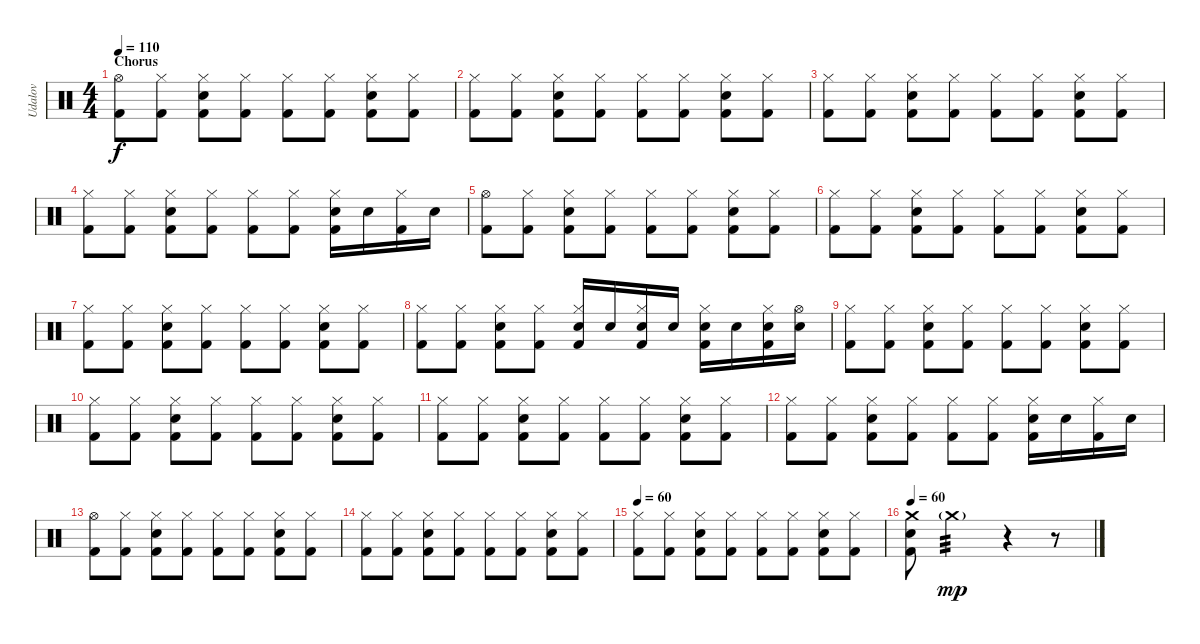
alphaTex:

\track ("Udalov" "Udalov") {instrument percussion}
\staff {score}
\articulation defaults
\ts (4 4)
\section ("" "Chorus")
\tempo 110
\clef neutral
\ks c
("Hi-Hat (open)" "Kick (hit) 2").8{dy f} ("Hi-Hat (closed)" "Kick (hit) 2").8 ("Hi-Hat (closed)" "Snare (hit) 2" "Kick (hit) 2").8 ("Hi-Hat (closed)" "Kick (hit) 2").8 ("Hi-Hat (closed)" "Kick (hit) 2").8 ("Hi-Hat (closed)" "Kick (hit) 2").8 ("Hi-Hat (closed)" "Snare (hit) 2" "Kick (hit) 2").8 ("Hi-Hat (closed)" "Kick (hit) 2").8 |
("Hi-Hat (closed)" "Kick (hit) 2").8 ("Hi-Hat (closed)" "Kick (hit) 2").8 ("Hi-Hat (closed)" "Snare (hit) 2" "Kick (hit) 2").8 ("Hi-Hat (closed)" "Kick (hit) 2").8 ("Hi-Hat (closed)" "Kick (hit) 2").8 ("Hi-Hat (closed)" "Kick (hit) 2").8 ("Hi-Hat (closed)" "Snare (hit) 2" "Kick (hit) 2").8 ("Hi-Hat (closed)" "Kick (hit) 2").8 |
("Hi-Hat (closed)" "Kick (hit) 2").8 ("Hi-Hat (closed)" "Kick (hit) 2").8 ("Hi-Hat (closed)" "Snare (hit) 2" "Kick (hit) 2").8 ("Hi-Hat (closed)" "Kick (hit) 2").8 ("Hi-Hat (closed)" "Kick (hit) 2").8 ("Hi-Hat (closed)" "Kick (hit) 2").8 ("Hi-Hat (closed)" "Snare (hit) 2" "Kick (hit) 2").8 ("Hi-Hat (closed)" "Kick (hit) 2").8 |
("Hi-Hat (closed)" "Kick (hit) 2").8 ("Hi-Hat (closed)" "Kick (hit) 2").8 ("Hi-Hat (closed)" "Snare (hit) 2" "Kick (hit) 2").8 ("Hi-Hat (closed)" "Kick (hit) 2").8 ("Hi-Hat (closed)" "Kick (hit) 2").8 ("Hi-Hat (closed)" "Kick (hit) 2").8 ("Hi-Hat (closed)" "Snare (hit) 2" "Kick (hit) 2").16 "Snare (hit) 2".16 ("Hi-Hat (closed)" "Kick (hit) 2").16 "Snare (hit) 2".16 |
("Hi-Hat (open)" "Kick (hit) 2").8 ("Hi-Hat (closed)" "Kick (hit) 2").8 ("Hi-Hat (closed)" "Snare (hit) 2" "Kick (hit) 2").8 ("Hi-Hat (closed)" "Kick (hit) 2").8 ("Hi-Hat (closed)" "Kick (hit) 2").8 ("Hi-Hat (closed)" "Kick (hit) 2").8 ("Hi-Hat (closed)" "Snare (hit) 2" "Kick (hit) 2").8 ("Hi-Hat (closed)" "Kick (hit) 2").8 |
("Hi-Hat (closed)" "Kick (hit) 2").8 ("Hi-Hat (closed)" "Kick (hit) 2").8 ("Hi-Hat (closed)" "Snare (hit) 2" "Kick (hit) 2").8 ("Hi-Hat (closed)" "Kick (hit) 2").8 ("Hi-Hat (closed)" "Kick (hit) 2").8 ("Hi-Hat (closed)" "Kick (hit) 2").8 ("Hi-Hat (closed)" "Snare (hit) 2" "Kick (hit) 2").8 ("Hi-Hat (closed)" "Kick (hit) 2").8 |
("Hi-Hat (closed)" "Kick (hit) 2").8 ("Hi-Hat (closed)" "Kick (hit) 2").8 ("Hi-Hat (closed)" "Snare (hit) 2" "Kick (hit) 2").8 ("Hi-Hat (closed)" "Kick (hit) 2").8 ("Hi-Hat (closed)" "Kick (hit) 2").8 ("Hi-Hat (closed)" "Kick (hit) 2").8 ("Hi-Hat (closed)" "Snare (hit) 2" "Kick (hit) 2").8 ("Hi-Hat (closed)" "Kick (hit) 2").8 |
("Hi-Hat (closed)" "Kick (hit) 2").8 ("Hi-Hat (closed)" "Kick (hit) 2").8 ("Hi-Hat (closed)" "Snare (hit) 2" "Kick (hit) 2").8 ("Hi-Hat (closed)" "Kick (hit) 2").8 ("Hi-Hat (closed)" "Snare (hit) 2" "Kick (hit) 2").16 "Snare (hit) 2".16 ("Hi-Hat (closed)" "Snare (hit) 2" "Kick (hit) 2").16 "Snare (hit) 2".16 ("Hi-Hat (closed)" "Snare (hit) 2" "Kick (hit) 2").16 "Snare (hit) 2".16 ("Hi-Hat (closed)" "Snare (hit) 2" "Kick (hit) 2").16 ("Hi-Hat (open)" "Snare (hit) 2").16 |
("Hi-Hat (closed)" "Kick (hit) 2").8 ("Hi-Hat (closed)" "Kick (hit) 2").8 ("Hi-Hat (closed)" "Snare (hit) 2" "Kick (hit) 2").8 ("Hi-Hat (closed)" "Kick (hit) 2").8 ("Hi-Hat (closed)" "Kick (hit) 2").8 ("Hi-Hat (closed)" "Kick (hit) 2").8 ("Hi-Hat (closed)" "Snare (hit) 2" "Kick (hit) 2").8 ("Hi-Hat (closed)" "Kick (hit) 2").8 |
("Hi-Hat (closed)" "Kick (hit) 2").8 ("Hi-Hat (closed)" "Kick (hit) 2").8 ("Hi-Hat (closed)" "Snare (hit) 2" "Kick (hit) 2").8 ("Hi-Hat (closed)" "Kick (hit) 2").8 ("Hi-Hat (closed)" "Kick (hit) 2").8 ("Hi-Hat (closed)" "Kick (hit) 2").8 ("Hi-Hat (closed)" "Snare (hit) 2" "Kick (hit) 2").8 ("Hi-Hat (closed)" "Kick (hit) 2").8 |
("Hi-Hat (closed)" "Kick (hit) 2").8 ("Hi-Hat (closed)" "Kick (hit) 2").8 ("Hi-Hat (closed)" "Snare (hit) 2" "Kick (hit) 2").8 ("Hi-Hat (closed)" "Kick (hit) 2").8 ("Hi-Hat (closed)" "Kick (hit) 2").8 ("Hi-Hat (closed)" "Kick (hit) 2").8 ("Hi-Hat (closed)" "Snare (hit) 2" "Kick (hit) 2").8 ("Hi-Hat (closed)" "Kick (hit) 2").8 |
("Hi-Hat (closed)" "Kick (hit) 2").8 ("Hi-Hat (closed)" "Kick (hit) 2").8 ("Hi-Hat (closed)" "Snare (hit) 2" "Kick (hit) 2").8 ("Hi-Hat (closed)" "Kick (hit) 2").8 ("Hi-Hat (closed)" "Kick (hit) 2").8 ("Hi-Hat (closed)" "Kick (hit) 2").8 ("Hi-Hat (closed)" "Snare (hit) 2" "Kick (hit) 2").16 "Snare (hit) 2".16 ("Hi-Hat (closed)" "Kick (hit) 2").16 "Snare (hit) 2".16 |
("Hi-Hat (open)" "Kick (hit) 2").8 ("Hi-Hat (closed)" "Kick (hit) 2").8 ("Hi-Hat (closed)" "Snare (hit) 2" "Kick (hit) 2").8 ("Hi-Hat (closed)" "Kick (hit) 2").8 ("Hi-Hat (closed)" "Kick (hit) 2").8 ("Hi-Hat (closed)" "Kick (hit) 2").8 ("Hi-Hat (closed)" "Snare (hit) 2" "Kick (hit) 2").8 ("Hi-Hat (closed)" "Kick (hit) 2").8 |
("Hi-Hat (closed)" "Kick (hit) 2").8 ("Hi-Hat (closed)" "Kick (hit) 2").8 ("Hi-Hat (closed)" "Snare (hit) 2" "Kick (hit) 2").8 ("Hi-Hat (closed)" "Kick (hit) 2").8 ("Hi-Hat (closed)" "Kick (hit) 2").8 ("Hi-Hat (closed)" "Kick (hit) 2").8 ("Hi-Hat (closed)" "Snare (hit) 2" "Kick (hit) 2").8 ("Hi-Hat (closed)" "Kick (hit) 2").8 |
\tempo 60
("Hi-Hat (closed)" "Kick (hit) 2").8 ("Hi-Hat (closed)" "Kick (hit) 2").8 ("Hi-Hat (closed)" "Snare (hit) 2" "Kick (hit) 2").8 ("Hi-Hat (closed)" "Kick (hit) 2").8 ("Hi-Hat (closed)" "Kick (hit) 2").8 ("Hi-Hat (closed)" "Kick (hit) 2").8 ("Hi-Hat (closed)" "Snare (hit) 2" "Kick (hit) 2").8 ("Hi-Hat (closed)" "Kick (hit) 2").8 |
\tempo 60
("Crash medium (hit)" "Snare (hit) 2" "Kick (hit) 2").8 "Crash medium (hit)"{g}.2{tp 3 dy mp} r.4 r.8
